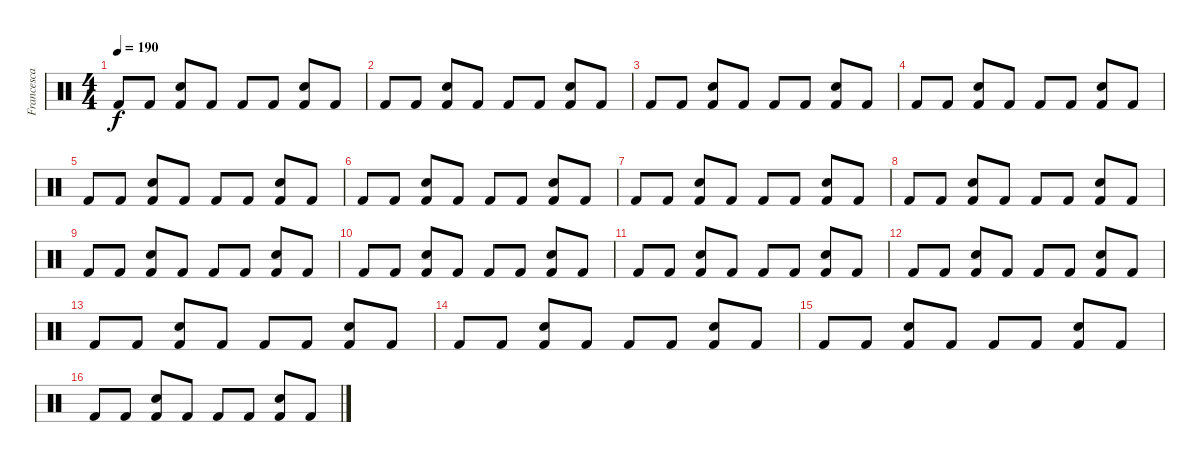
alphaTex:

\track ("Francesca Tresca" "Francesca ") {instrument percussion}
\staff {score}
\articulation defaults
\ts (4 4)
\tempo 190
\clef neutral
\ks c "Kick (hit) 2".8{dy f} "Kick (hit) 2".8
("Snare (hit) 2" "Kick (hit) 2").8 "Kick (hit) 2".8 "Kick (hit) 2".8 "Kick (hit) 2".8 ("Snare (hit) 2" "Kick (hit) 2").8 "Kick (hit) 2".8 |
"Kick (hit) 2".8 "Kick (hit) 2".8 ("Snare (hit) 2" "Kick (hit) 2").8 "Kick (hit) 2".8 "Kick (hit) 2".8 "Kick (hit) 2".8 ("Snare (hit) 2" "Kick (hit) 2").8 "Kick (hit) 2".8 |
"Kick (hit) 2".8 "Kick (hit) 2".8 ("Snare (hit) 2" "Kick (hit) 2").8 "Kick (hit) 2".8 "Kick (hit) 2".8 "Kick (hit) 2".8 ("Snare (hit) 2" "Kick (hit) 2").8 "Kick (hit) 2".8 |
"Kick (hit) 2".8 "Kick (hit) 2".8 ("Snare (hit) 2" "Kick (hit) 2").8 "Kick (hit) 2".8 "Kick (hit) 2".8 "Kick (hit) 2".8 ("Snare (hit) 2" "Kick (hit) 2").8 "Kick (hit) 2".8 |
"Kick (hit) 2".8 "Kick (hit) 2".8 ("Snare (hit) 2" "Kick (hit) 2").8 "Kick (hit) 2".8 "Kick (hit) 2".8 "Kick (hit) 2".8 ("Snare (hit) 2" "Kick (hit) 2").8 "Kick (hit) 2".8 |
"Kick (hit) 2".8 "Kick (hit) 2".8 ("Snare (hit) 2" "Kick (hit) 2").8 "Kick (hit) 2".8 "Kick (hit) 2".8 "Kick (hit) 2".8 ("Snare (hit) 2" "Kick (hit) 2").8 "Kick (hit) 2".8 |
"Kick (hit) 2".8 "Kick (hit) 2".8 ("Snare (hit) 2" "Kick (hit) 2").8 "Kick (hit) 2".8 "Kick (hit) 2".8 "Kick (hit) 2".8 ("Snare (hit) 2" "Kick (hit) 2").8 "Kick (hit) 2".8 |
"Kick (hit) 2".8 "Kick (hit) 2".8 ("Snare (hit) 2" "Kick (hit) 2").8 "Kick (hit) 2".8 "Kick (hit) 2".8 "Kick (hit) 2".8 ("Snare (hit) 2" "Kick (hit) 2").8 "Kick (hit) 2".8 |
"Kick (hit) 2".8 "Kick (hit) 2".8 ("Snare (hit) 2" "Kick (hit) 2").8 "Kick (hit) 2".8 "Kick (hit) 2".8 "Kick (hit) 2".8 ("Snare (hit) 2" "Kick (hit) 2").8 "Kick (hit) 2".8 |
"Kick (hit) 2".8 "Kick (hit) 2".8 ("Snare (hit) 2" "Kick (hit) 2").8 "Kick (hit) 2".8 "Kick (hit) 2".8 "Kick (hit) 2".8 ("Snare (hit) 2" "Kick (hit) 2").8 "Kick (hit) 2".8 |
"Kick (hit) 2".8 "Kick (hit) 2".8 ("Snare (hit) 2" "Kick (hit) 2").8 "Kick (hit) 2".8 "Kick (hit) 2".8 "Kick (hit) 2".8 ("Snare (hit) 2" "Kick (hit) 2").8 "Kick (hit) 2".8 |
"Kick (hit) 2".8 "Kick (hit) 2".8 ("Snare (hit) 2" "Kick (hit) 2").8 "Kick (hit) 2".8 "Kick (hit) 2".8 "Kick (hit) 2".8 ("Snare (hit) 2" "Kick (hit) 2").8 "Kick (hit) 2".8 |
"Kick (hit) 2".8 "Kick (hit) 2".8 ("Snare (hit) 2" "Kick (hit) 2").8 "Kick (hit) 2".8 "Kick (hit) 2".8 "Kick (hit) 2".8 ("Snare (hit) 2" "Kick (hit) 2").8 "Kick (hit) 2".8 |
"Kick (hit) 2".8 "Kick (hit) 2".8 ("Snare (hit) 2" "Kick (hit) 2").8 "Kick (hit) 2".8 "Kick (hit) 2".8 "Kick (hit) 2".8 ("Snare (hit) 2" "Kick (hit) 2").8 "Kick (hit) 2".8 |
"Kick (hit) 2".8 "Kick (hit) 2".8 ("Snare (hit) 2" "Kick (hit) 2").8 "Kick (hit) 2".8 "Kick (hit) 2".8 "Kick (hit) 2".8 ("Snare (hit) 2" "Kick (hit) 2").8 "Kick (hit) 2".8 |
"Kick (hit) 2".8 "Kick (hit) 2".8 ("Snare (hit) 2" "Kick (hit) 2").8 "Kick (hit) 2".8 "Kick (hit) 2".8 "Kick (hit) 2".8 ("Snare (hit) 2" "Kick (hit) 2").8 "Kick (hit) 2".8
